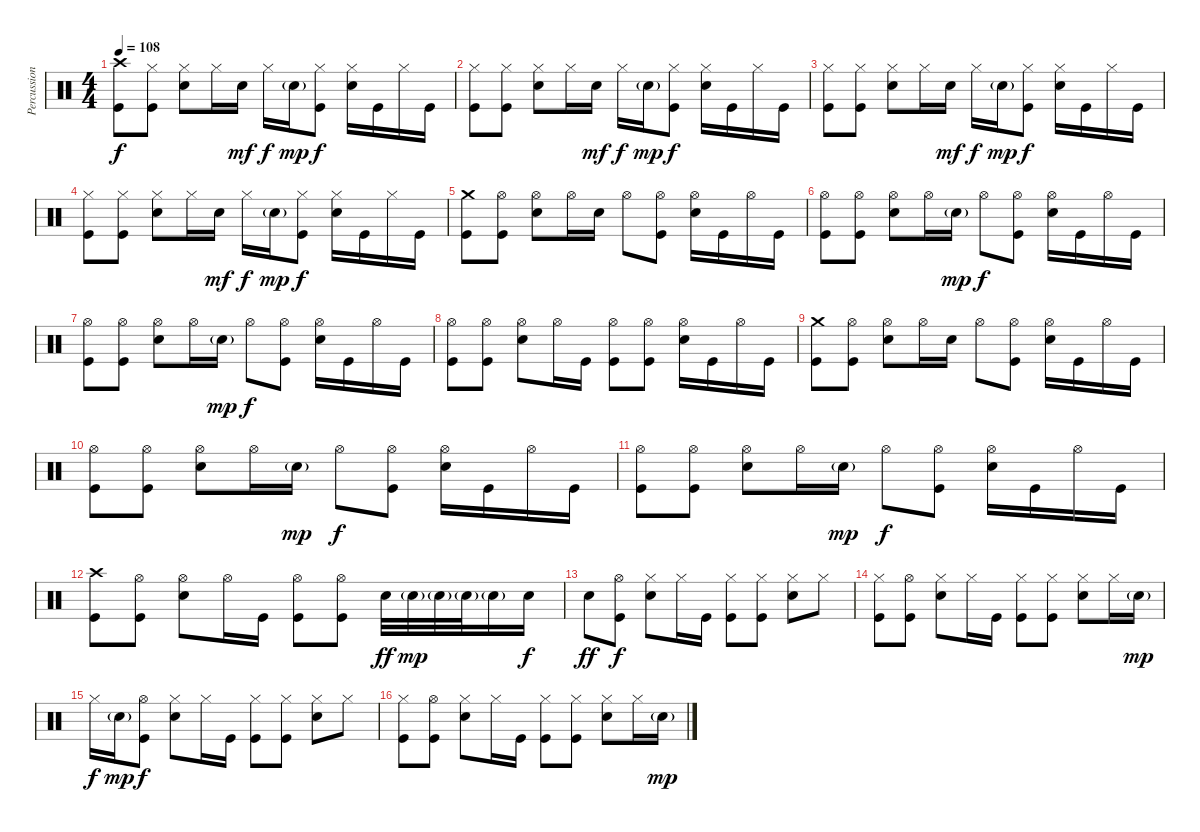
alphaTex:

\track ("Percussion" "Percussion") {instrument percussion}
\staff {score}
\articulation defaults
\ts (4 4)
\tempo 108
\clef neutral
\ks c
("Crash high (hit)" "Kick (hit)").8{dy f} ("Hi-Hat (closed)" "Kick (hit)").8 ("Hi-Hat (closed)" "Electric Snare (hit)").8 "Hi-Hat (closed)".16 "Electric Snare (hit)".16{dy mf} "Hi-Hat (closed)".16{dy f} "Electric Snare (hit)"{g}.16{dy mp} ("Hi-Hat (closed)" "Kick (hit)").8{dy f} ("Hi-Hat (closed)" "Electric Snare (hit)").16 "Kick (hit)".16 "Hi-Hat (closed)".16 "Kick (hit)".16 |
("Hi-Hat (closed)" "Kick (hit)").8 ("Hi-Hat (closed)" "Kick (hit)").8 ("Hi-Hat (closed)" "Electric Snare (hit)").8 "Hi-Hat (closed)".16 "Electric Snare (hit)".16{dy mf} "Hi-Hat (closed)".16{dy f} "Electric Snare (hit)"{g}.16{dy mp} ("Hi-Hat (closed)" "Kick (hit)").8{dy f} ("Hi-Hat (closed)" "Electric Snare (hit)").16 "Kick (hit)".16 "Hi-Hat (closed)".16 "Kick (hit)".16 |
("Hi-Hat (closed)" "Kick (hit)").8 ("Hi-Hat (closed)" "Kick (hit)").8 ("Hi-Hat (closed)" "Electric Snare (hit)").8 "Hi-Hat (closed)".16 "Electric Snare (hit)".16{dy mf} "Hi-Hat (closed)".16{dy f} "Electric Snare (hit)"{g}.16{dy mp} ("Hi-Hat (closed)" "Kick (hit)").8{dy f} ("Hi-Hat (closed)" "Electric Snare (hit)").16 "Kick (hit)".16 "Hi-Hat (closed)".16 "Kick (hit)".16 |
("Hi-Hat (closed)" "Kick (hit)").8 ("Hi-Hat (closed)" "Kick (hit)").8 ("Hi-Hat (closed)" "Electric Snare (hit)").8 "Hi-Hat (closed)".16 "Electric Snare (hit)".16{dy mf} "Hi-Hat (closed)".16{dy f} "Electric Snare (hit)"{g}.16{dy mp} ("Hi-Hat (closed)" "Kick (hit)").8{dy f} ("Hi-Hat (closed)" "Electric Snare (hit)").16 "Kick (hit)".16 "Hi-Hat (closed)".16 "Kick (hit)".16 |
("Crash medium (hit)" "Kick (hit)").8 ("Hi-Hat (open)" "Kick (hit)").8 ("Hi-Hat (open)" "Electric Snare (hit)").8 "Hi-Hat (open)".16 "Electric Snare (hit)".16 "Hi-Hat (open)".8 ("Hi-Hat (open)" "Kick (hit)").8 ("Hi-Hat (open)" "Electric Snare (hit)").16 "Kick (hit)".16 "Hi-Hat (open)".16 "Kick (hit)".16 |
("Hi-Hat (open)" "Kick (hit)").8 ("Hi-Hat (open)" "Kick (hit)").8 ("Hi-Hat (open)" "Electric Snare (hit)").8 "Hi-Hat (open)".16 "Electric Snare (hit)"{g}.16{dy mp} "Hi-Hat (open)".8{dy f} ("Hi-Hat (open)" "Kick (hit)").8 ("Hi-Hat (open)" "Electric Snare (hit)").16 "Kick (hit)".16 "Hi-Hat (open)".16 "Kick (hit)".16 |
("Hi-Hat (open)" "Kick (hit)").8 ("Hi-Hat (open)" "Kick (hit)").8 ("Hi-Hat (open)" "Electric Snare (hit)").8 "Hi-Hat (open)".16 "Electric Snare (hit)"{g}.16{dy mp} "Hi-Hat (open)".8{dy f} ("Hi-Hat (open)" "Kick (hit)").8 ("Hi-Hat (open)" "Electric Snare (hit)").16 "Kick (hit)".16 "Hi-Hat (open)".16 "Kick (hit)".16 |
("Hi-Hat (open)" "Kick (hit)").8 ("Hi-Hat (open)" "Kick (hit)").8 ("Hi-Hat (open)" "Electric Snare (hit)").8 "Hi-Hat (open)".16 "Kick (hit)".16 ("Hi-Hat (open)" "Kick (hit)").8 ("Hi-Hat (open)" "Kick (hit)").8 ("Hi-Hat (open)" "Electric Snare (hit)").16 "Kick (hit)".16 "Hi-Hat (open)".16 "Kick (hit)".16 |
("Crash medium (hit)" "Kick (hit)").8 ("Hi-Hat (open)" "Kick (hit)").8 ("Hi-Hat (open)" "Electric Snare (hit)").8 "Hi-Hat (open)".16 "Electric Snare (hit)".16 "Hi-Hat (open)".8 ("Hi-Hat (open)" "Kick (hit)").8 ("Hi-Hat (open)" "Electric Snare (hit)").16 "Kick (hit)".16 "Hi-Hat (open)".16 "Kick (hit)".16 |
("Hi-Hat (open)" "Kick (hit)").8 ("Hi-Hat (open)" "Kick (hit)").8 ("Hi-Hat (open)" "Electric Snare (hit)").8 "Hi-Hat (open)".16 "Electric Snare (hit)"{g}.16{dy mp} "Hi-Hat (open)".8{dy f} ("Hi-Hat (open)" "Kick (hit)").8 ("Hi-Hat (open)" "Electric Snare (hit)").16 "Kick (hit)".16 "Hi-Hat (open)".16 "Kick (hit)".16 |
("Hi-Hat (open)" "Kick (hit)").8 ("Hi-Hat (open)" "Kick (hit)").8 ("Hi-Hat (open)" "Electric Snare (hit)").8 "Hi-Hat (open)".16 "Electric Snare (hit)"{g}.16{dy mp} "Hi-Hat (open)".8{dy f} ("Hi-Hat (open)" "Kick (hit)").8 ("Hi-Hat (open)" "Electric Snare (hit)").16 "Kick (hit)".16 "Hi-Hat (open)".16 "Kick (hit)".16 |
("Crash high (hit)" "Kick (hit)").8 ("Hi-Hat (open)" "Kick (hit)").8 ("Hi-Hat (open)" "Electric Snare (hit)").8 "Hi-Hat (open)".16 "Kick (hit)".16 ("Hi-Hat (open)" "Kick (hit)").8 ("Hi-Hat (open)" "Kick (hit)").8 "Electric Snare (hit)".32{dy ff} "Electric Snare (hit)"{g}.32{dy mp} "Electric Snare (hit)"{g}.32 "Electric Snare (hit)"{g}.32 "Electric Snare (hit)"{g}.16 "Electric Snare (hit)".16{dy f} |
"Electric Snare (hit)".8{dy ff} ("Hi-Hat (open)" "Kick (hit)").8{dy f} ("Hi-Hat (closed)" "Electric Snare (hit)").8 "Hi-Hat (closed)".16 "Kick (hit)".16 ("Hi-Hat (closed)" "Kick (hit)").8 ("Hi-Hat (closed)" "Kick (hit)").8 ("Hi-Hat (closed)" "Electric Snare (hit)").8 "Hi-Hat (closed)".8 |
("Hi-Hat (closed)" "Kick (hit)").8 ("Hi-Hat (open)" "Kick (hit)").8 ("Hi-Hat (closed)" "Electric Snare (hit)").8 "Hi-Hat (closed)".16 "Kick (hit)".16 ("Hi-Hat (closed)" "Kick (hit)").8 ("Hi-Hat (closed)" "Kick (hit)").8 ("Hi-Hat (closed)" "Electric Snare (hit)").8 "Hi-Hat (closed)".16 "Electric Snare (hit)"{g}.16{dy mp} |
"Hi-Hat (closed)".16{dy f} "Electric Snare (hit)"{g}.16{dy mp} ("Hi-Hat (open)" "Kick (hit)").8{dy f} ("Hi-Hat (closed)" "Electric Snare (hit)").8 "Hi-Hat (closed)".16 "Kick (hit)".16 ("Hi-Hat (closed)" "Kick (hit)").8 ("Hi-Hat (closed)" "Kick (hit)").8 ("Hi-Hat (closed)" "Electric Snare (hit)").8 "Hi-Hat (closed)".8 |
("Hi-Hat (closed)" "Kick (hit)").8 ("Hi-Hat (open)" "Kick (hit)").8 ("Hi-Hat (closed)" "Electric Snare (hit)").8 "Hi-Hat (closed)".16 "Kick (hit)".16 ("Hi-Hat (closed)" "Kick (hit)").8 ("Hi-Hat (closed)" "Kick (hit)").8 ("Hi-Hat (closed)" "Electric Snare (hit)").8 "Hi-Hat (closed)".16 "Electric Snare (hit)"{g}.16{dy mp}
